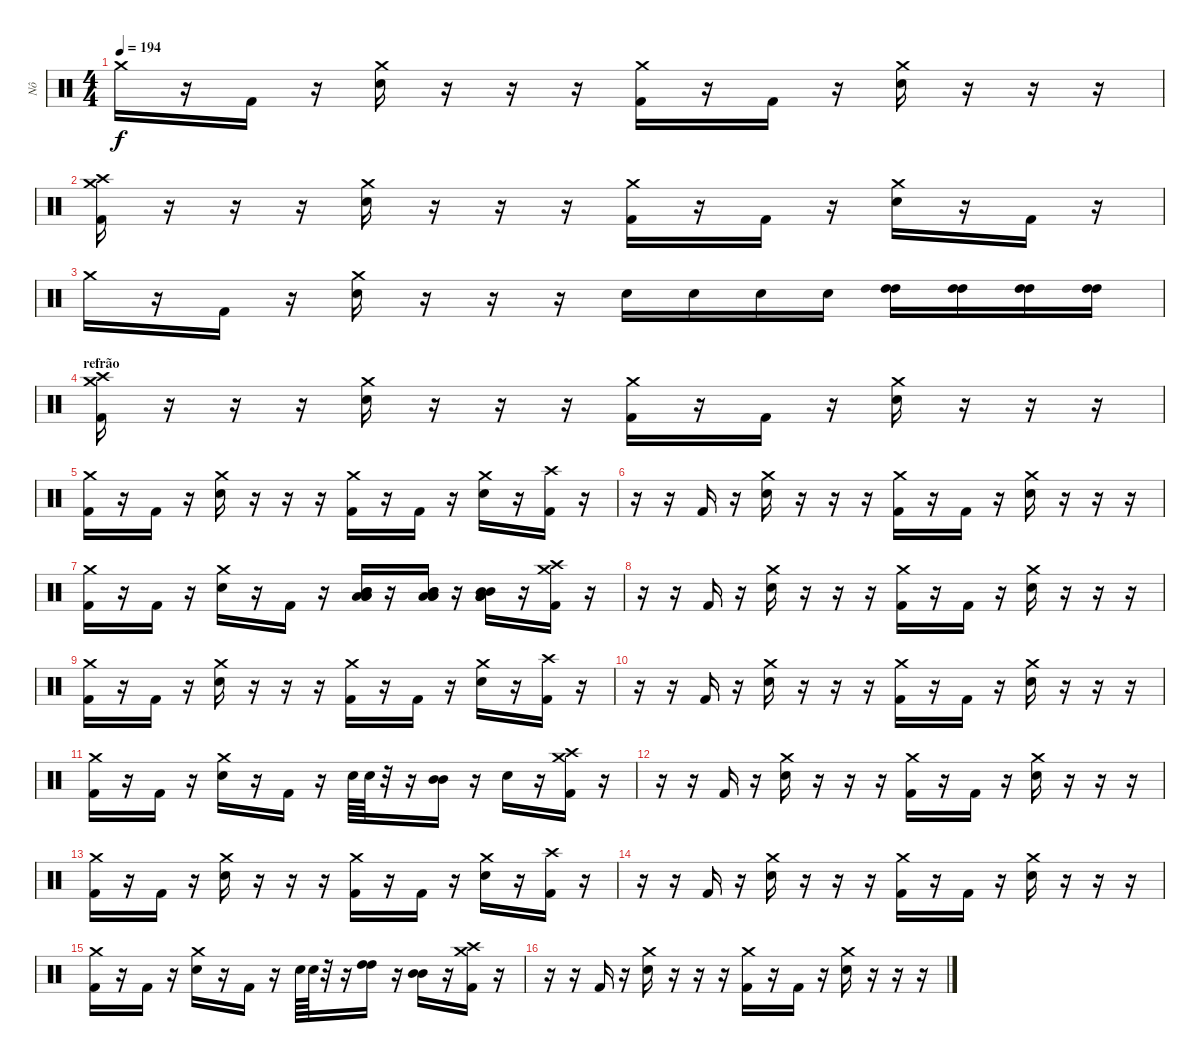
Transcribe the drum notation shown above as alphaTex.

\track ("Nô" "Nô") {instrument percussion}
\staff {score}
\articulation defaults
\ts (4 4)
\tempo 194
\clef neutral
\ks c "Crash medium (hit)".16{dy f}
r.16 "Kick (hit) 2".16 r.16 ("Crash medium (hit)" "Electric Snare (hit)").16 r.16 r.16 r.16 ("Crash medium (hit)" "Kick (hit) 2").16 r.16 "Kick (hit) 2".16 r.16 ("Crash medium (hit)" "Electric Snare (hit)").16 r.16 r.16 r.16 |
("Crash medium (hit)" "Crash high (hit)" "Kick (hit) 2").16 r.16 r.16 r.16 ("Crash medium (hit)" "Electric Snare (hit)").16 r.16 r.16 r.16 ("Crash medium (hit)" "Kick (hit) 2").16 r.16 "Kick (hit) 2".16 r.16 ("Crash medium (hit)" "Electric Snare (hit)").16 r.16 "Kick (hit) 2".16 r.16 |
"Crash medium (hit)".16 r.16 "Kick (hit) 2".16 r.16 ("Crash medium (hit)" "Electric Snare (hit)").16 r.16 r.16 r.16 "Electric Snare (hit)".16 "Electric Snare (hit)".16 "Electric Snare (hit)".16 "Electric Snare (hit)".16 ("High Tom (hit)" "High Tom (hit)").16 ("High Tom (hit)" "High Tom (hit)").16 ("High Tom (hit)" "High Tom (hit)").16 ("High Tom (hit)" "High Tom (hit)").16 |
\section ("" "refrão")
("Crash medium (hit)" "Crash high (hit)" "Kick (hit) 2").16 r.16 r.16 r.16 ("Crash medium (hit)" "Electric Snare (hit)").16 r.16 r.16 r.16 ("Crash medium (hit)" "Kick (hit) 2").16 r.16 "Kick (hit) 2".16 r.16 ("Crash medium (hit)" "Electric Snare (hit)").16 r.16 r.16 r.16 |
("Crash medium (hit)" "Kick (hit) 2").16 r.16 "Kick (hit) 2".16 r.16 ("Crash medium (hit)" "Electric Snare (hit)").16 r.16 r.16 r.16 ("Crash medium (hit)" "Kick (hit) 2").16 r.16 "Kick (hit) 2".16 r.16 ("Crash medium (hit)" "Electric Snare (hit)").16 r.16 ("Crash high (hit)" "Kick (hit) 2").16 r.16 |
r.16 r.16 "Kick (hit) 2".16 r.16 ("Crash medium (hit)" "Electric Snare (hit)").16 r.16 r.16 r.16 ("Crash medium (hit)" "Kick (hit) 2").16 r.16 "Kick (hit) 2".16 r.16 ("Crash medium (hit)" "Electric Snare (hit)").16 r.16 r.16 r.16 |
("Crash medium (hit)" "Kick (hit) 2").16 r.16 "Kick (hit) 2".16 r.16 ("Crash medium (hit)" "Electric Snare (hit)").16 r.16 "Kick (hit) 2".16 r.16 ("Mid Tom (hit)" "Mid Tom (hit)" "Low Tom (hit)" "Low Tom (hit)" "Low Tom (hit)").16 r.16 ("Mid Tom (hit)" "Mid Tom (hit)" "Low Tom (hit)" "Low Tom (hit)" "Low Tom (hit)").16 r.16 ("Mid Tom (hit)" "Mid Tom (hit)" "Low Tom (hit)" "Low Tom (hit)" "Low Tom (hit)").16 r.16 ("Crash high (hit)" "Crash medium (hit)" "Kick (hit) 2").16 r.16 |
r.16 r.16 "Kick (hit) 2".16 r.16 ("Crash medium (hit)" "Electric Snare (hit)").16 r.16 r.16 r.16 ("Crash medium (hit)" "Kick (hit) 2").16 r.16 "Kick (hit) 2".16 r.16 ("Crash medium (hit)" "Electric Snare (hit)").16 r.16 r.16 r.16 |
("Crash medium (hit)" "Kick (hit) 2").16 r.16 "Kick (hit) 2".16 r.16 ("Crash medium (hit)" "Electric Snare (hit)").16 r.16 r.16 r.16 ("Crash medium (hit)" "Kick (hit) 2").16 r.16 "Kick (hit) 2".16 r.16 ("Crash medium (hit)" "Electric Snare (hit)").16 r.16 ("Crash high (hit)" "Kick (hit) 2").16 r.16 |
r.16 r.16 "Kick (hit) 2".16 r.16 ("Crash medium (hit)" "Electric Snare (hit)").16 r.16 r.16 r.16 ("Crash medium (hit)" "Kick (hit) 2").16 r.16 "Kick (hit) 2".16 r.16 ("Crash medium (hit)" "Electric Snare (hit)").16 r.16 r.16 r.16 |
("Crash medium (hit)" "Kick (hit) 2").16 r.16 "Kick (hit) 2".16 r.16 ("Crash medium (hit)" "Electric Snare (hit)").16 r.16 "Kick (hit) 2".16 r.16 "Electric Snare (hit)".64 "Electric Snare (hit)".64 r.32 r.16 ("Mid Tom (hit)" "Mid Tom (hit)").16 r.16 "Electric Snare (hit)".16 r.16 ("Crash high (hit)" "Crash medium (hit)" "Kick (hit) 2").16 r.16 |
r.16 r.16 "Kick (hit) 2".16 r.16 ("Crash medium (hit)" "Electric Snare (hit)").16 r.16 r.16 r.16 ("Crash medium (hit)" "Kick (hit) 2").16 r.16 "Kick (hit) 2".16 r.16 ("Crash medium (hit)" "Electric Snare (hit)").16 r.16 r.16 r.16 |
("Crash medium (hit)" "Kick (hit) 2").16 r.16 "Kick (hit) 2".16 r.16 ("Crash medium (hit)" "Electric Snare (hit)").16 r.16 r.16 r.16 ("Crash medium (hit)" "Kick (hit) 2").16 r.16 "Kick (hit) 2".16 r.16 ("Crash medium (hit)" "Electric Snare (hit)").16 r.16 ("Crash high (hit)" "Kick (hit) 2").16 r.16 |
r.16 r.16 "Kick (hit) 2".16 r.16 ("Crash medium (hit)" "Electric Snare (hit)").16 r.16 r.16 r.16 ("Crash medium (hit)" "Kick (hit) 2").16 r.16 "Kick (hit) 2".16 r.16 ("Crash medium (hit)" "Electric Snare (hit)").16 r.16 r.16 r.16 |
("Crash medium (hit)" "Kick (hit) 2").16 r.16 "Kick (hit) 2".16 r.16 ("Crash medium (hit)" "Electric Snare (hit)").16 r.16 "Kick (hit) 2".16 r.16 "Electric Snare (hit)".64 "Electric Snare (hit)".64 r.32 r.16 ("High Tom (hit)" "High Tom (hit)").16 r.16 ("Mid Tom (hit)" "Mid Tom (hit)").16 r.16 ("Crash high (hit)" "Crash medium (hit)" "Kick (hit) 2").16 r.16 |
r.16 r.16 "Kick (hit) 2".16 r.16 ("Crash medium (hit)" "Electric Snare (hit)").16 r.16 r.16 r.16 ("Crash medium (hit)" "Kick (hit) 2").16 r.16 "Kick (hit) 2".16 r.16 ("Crash medium (hit)" "Electric Snare (hit)").16 r.16 r.16 r.16
